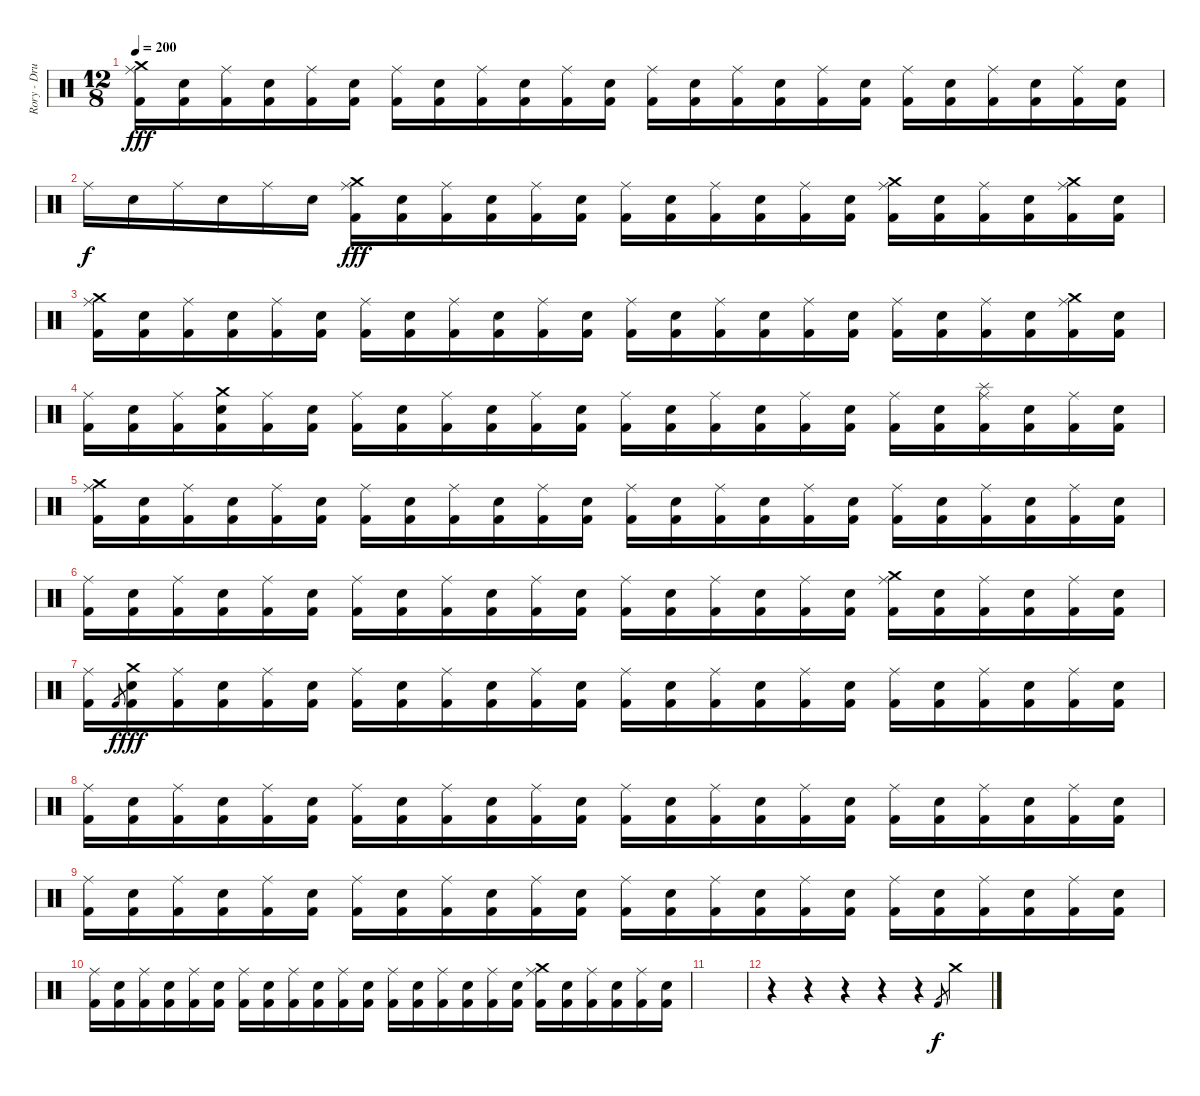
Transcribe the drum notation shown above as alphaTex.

\track ("Rory - Drums" "Rory - Dru") {instrument percussion}
\staff {score}
\articulation defaults
\ts (12 8)
\tempo 200
\clef neutral
\ks c
("Kick (hit) 2" "Crash medium (hit)" "Ride (middle)").16{dy fff} ("Kick (hit) 2" "Electric Snare (hit)").16 ("Kick (hit) 2" "Ride (middle)").16 ("Kick (hit) 2" "Electric Snare (hit)").16 ("Kick (hit) 2" "Ride (middle)").16 ("Kick (hit) 2" "Electric Snare (hit)").16 ("Kick (hit) 2" "Ride (middle)").16 ("Kick (hit) 2" "Electric Snare (hit)").16 ("Kick (hit) 2" "Ride (middle)").16 ("Kick (hit) 2" "Electric Snare (hit)").16 ("Kick (hit) 2" "Ride (middle)").16 ("Kick (hit) 2" "Electric Snare (hit)").16 ("Kick (hit) 2" "Ride (middle)").16 ("Kick (hit) 2" "Electric Snare (hit)").16 ("Kick (hit) 2" "Ride (middle)").16 ("Kick (hit) 2" "Electric Snare (hit)").16 ("Kick (hit) 2" "Ride (middle)").16 ("Kick (hit) 2" "Electric Snare (hit)").16 ("Kick (hit) 2" "Ride (middle)").16 ("Kick (hit) 2" "Electric Snare (hit)").16 ("Kick (hit) 2" "Ride (middle)").16 ("Kick (hit) 2" "Electric Snare (hit)").16 ("Kick (hit) 2" "Ride (middle)").16 ("Kick (hit) 2" "Electric Snare (hit)").16 |
"Ride (middle)".16{dy f} "Electric Snare (hit)".16 "Ride (middle)".16 "Electric Snare (hit)".16 "Ride (middle)".16 "Electric Snare (hit)".16 ("Kick (hit) 2" "Crash medium (hit)" "Ride (middle)").16{dy fff} ("Kick (hit) 2" "Electric Snare (hit)").16 ("Kick (hit) 2" "Ride (middle)").16 ("Kick (hit) 2" "Electric Snare (hit)").16 ("Kick (hit) 2" "Ride (middle)").16 ("Kick (hit) 2" "Electric Snare (hit)").16 ("Kick (hit) 2" "Ride (middle)").16 ("Kick (hit) 2" "Electric Snare (hit)").16 ("Kick (hit) 2" "Ride (middle)").16 ("Kick (hit) 2" "Electric Snare (hit)").16 ("Kick (hit) 2" "Ride (middle)").16 ("Kick (hit) 2" "Electric Snare (hit)").16 ("Kick (hit) 2" "Crash medium (hit)" "Ride (middle)").16 ("Kick (hit) 2" "Electric Snare (hit)").16 ("Kick (hit) 2" "Ride (middle)").16 ("Kick (hit) 2" "Electric Snare (hit)").16 ("Kick (hit) 2" "Crash medium (hit)" "Ride (middle)").16 ("Kick (hit) 2" "Electric Snare (hit)").16 |
("Kick (hit) 2" "Crash medium (hit)" "Ride (middle)").16 ("Kick (hit) 2" "Electric Snare (hit)").16 ("Kick (hit) 2" "Ride (middle)").16 ("Kick (hit) 2" "Electric Snare (hit)").16 ("Kick (hit) 2" "Ride (middle)").16 ("Kick (hit) 2" "Electric Snare (hit)").16 ("Kick (hit) 2" "Ride (middle)").16 ("Kick (hit) 2" "Electric Snare (hit)").16 ("Kick (hit) 2" "Ride (middle)").16 ("Kick (hit) 2" "Electric Snare (hit)").16 ("Kick (hit) 2" "Ride (middle)").16 ("Kick (hit) 2" "Electric Snare (hit)").16 ("Kick (hit) 2" "Ride (middle)").16 ("Kick (hit) 2" "Electric Snare (hit)").16 ("Kick (hit) 2" "Ride (middle)").16 ("Kick (hit) 2" "Electric Snare (hit)").16 ("Kick (hit) 2" "Ride (middle)").16 ("Kick (hit) 2" "Electric Snare (hit)").16 ("Kick (hit) 2" "Ride (middle)").16 ("Kick (hit) 2" "Electric Snare (hit)").16 ("Kick (hit) 2" "Ride (middle)").16 ("Kick (hit) 2" "Electric Snare (hit)").16 ("Kick (hit) 2" "Crash medium (hit)" "Ride (middle)").16 ("Kick (hit) 2" "Electric Snare (hit)").16 |
("Kick (hit) 2" "Ride (middle)").16 ("Kick (hit) 2" "Electric Snare (hit)").16 ("Kick (hit) 2" "Ride (middle)").16 ("Kick (hit) 2" "Crash medium (hit)" "Electric Snare (hit)").16 ("Kick (hit) 2" "Ride (middle)").16 ("Kick (hit) 2" "Electric Snare (hit)").16 ("Kick (hit) 2" "Ride (middle)").16 ("Kick (hit) 2" "Electric Snare (hit)").16 ("Kick (hit) 2" "Ride (middle)").16 ("Kick (hit) 2" "Electric Snare (hit)").16 ("Kick (hit) 2" "Ride (middle)").16 ("Kick (hit) 2" "Electric Snare (hit)").16 ("Kick (hit) 2" "Ride (middle)").16 ("Kick (hit) 2" "Electric Snare (hit)").16 ("Kick (hit) 2" "Ride (middle)").16 ("Kick (hit) 2" "Electric Snare (hit)").16 ("Kick (hit) 2" "Ride (middle)").16 ("Kick (hit) 2" "Electric Snare (hit)").16 ("Kick (hit) 2" "Ride (middle)").16 ("Kick (hit) 2" "Electric Snare (hit)").16 ("Kick (hit) 2" "Splash (hit)" "Ride (middle)").16 ("Kick (hit) 2" "Electric Snare (hit)").16 ("Kick (hit) 2" "Ride (middle)").16 ("Kick (hit) 2" "Electric Snare (hit)").16 |
("Kick (hit) 2" "Crash medium (hit)" "Ride (middle)").16 ("Kick (hit) 2" "Electric Snare (hit)").16 ("Kick (hit) 2" "Ride (middle)").16 ("Kick (hit) 2" "Electric Snare (hit)").16 ("Kick (hit) 2" "Ride (middle)").16 ("Kick (hit) 2" "Electric Snare (hit)").16 ("Kick (hit) 2" "Ride (middle)").16 ("Kick (hit) 2" "Electric Snare (hit)").16 ("Kick (hit) 2" "Ride (middle)").16 ("Kick (hit) 2" "Electric Snare (hit)").16 ("Kick (hit) 2" "Ride (middle)").16 ("Kick (hit) 2" "Electric Snare (hit)").16 ("Kick (hit) 2" "Ride (middle)").16 ("Kick (hit) 2" "Electric Snare (hit)").16 ("Kick (hit) 2" "Ride (middle)").16 ("Kick (hit) 2" "Electric Snare (hit)").16 ("Kick (hit) 2" "Ride (middle)").16 ("Kick (hit) 2" "Electric Snare (hit)").16 ("Kick (hit) 2" "Ride (middle)").16 ("Kick (hit) 2" "Electric Snare (hit)").16 ("Kick (hit) 2" "Ride (middle)").16 ("Kick (hit) 2" "Electric Snare (hit)").16 ("Kick (hit) 2" "Ride (middle)").16 ("Kick (hit) 2" "Electric Snare (hit)").16 |
("Kick (hit) 2" "Ride (middle)").16 ("Kick (hit) 2" "Electric Snare (hit)").16 ("Kick (hit) 2" "Ride (middle)").16 ("Kick (hit) 2" "Electric Snare (hit)").16 ("Kick (hit) 2" "Ride (middle)").16 ("Kick (hit) 2" "Electric Snare (hit)").16 ("Kick (hit) 2" "Ride (middle)").16 ("Kick (hit) 2" "Electric Snare (hit)").16 ("Kick (hit) 2" "Ride (middle)").16 ("Kick (hit) 2" "Electric Snare (hit)").16 ("Kick (hit) 2" "Ride (middle)").16 ("Kick (hit) 2" "Electric Snare (hit)").16 ("Kick (hit) 2" "Ride (middle)").16 ("Kick (hit) 2" "Electric Snare (hit)").16 ("Kick (hit) 2" "Ride (middle)").16 ("Kick (hit) 2" "Electric Snare (hit)").16 ("Kick (hit) 2" "Ride (middle)").16 ("Kick (hit) 2" "Electric Snare (hit)").16 ("Kick (hit) 2" "Crash medium (hit)" "Ride (middle)").16 ("Kick (hit) 2" "Electric Snare (hit)").16 ("Kick (hit) 2" "Ride (middle)").16 ("Kick (hit) 2" "Electric Snare (hit)").16 ("Kick (hit) 2" "Ride (middle)").16 ("Kick (hit) 2" "Electric Snare (hit)").16 |
("Kick (hit) 2" "Ride (middle)").16 "Kick (hit) 2".8{gr dy f} ("Kick (hit) 2" "Crash medium (hit)" "Electric Snare (hit)").16{dy fff} ("Kick (hit) 2" "Ride (middle)").16 ("Kick (hit) 2" "Electric Snare (hit)").16 ("Kick (hit) 2" "Ride (middle)").16 ("Kick (hit) 2" "Electric Snare (hit)").16 ("Kick (hit) 2" "Ride (middle)").16 ("Kick (hit) 2" "Electric Snare (hit)").16 ("Kick (hit) 2" "Ride (middle)").16 ("Kick (hit) 2" "Electric Snare (hit)").16 ("Kick (hit) 2" "Ride (middle)").16 ("Kick (hit) 2" "Electric Snare (hit)").16 ("Kick (hit) 2" "Ride (middle)").16 ("Kick (hit) 2" "Electric Snare (hit)").16 ("Kick (hit) 2" "Ride (middle)").16 ("Kick (hit) 2" "Electric Snare (hit)").16 ("Kick (hit) 2" "Ride (middle)").16 ("Kick (hit) 2" "Electric Snare (hit)").16 ("Kick (hit) 2" "Ride (middle)").16 ("Kick (hit) 2" "Electric Snare (hit)").16 ("Kick (hit) 2" "Ride (middle)").16 ("Kick (hit) 2" "Electric Snare (hit)").16 ("Kick (hit) 2" "Ride (middle)").16 ("Kick (hit) 2" "Electric Snare (hit)").16 |
("Kick (hit) 2" "Ride (middle)").16 ("Kick (hit) 2" "Electric Snare (hit)").16 ("Kick (hit) 2" "Ride (middle)").16 ("Kick (hit) 2" "Electric Snare (hit)").16 ("Kick (hit) 2" "Ride (middle)").16 ("Kick (hit) 2" "Electric Snare (hit)").16 ("Kick (hit) 2" "Ride (middle)").16 ("Kick (hit) 2" "Electric Snare (hit)").16 ("Kick (hit) 2" "Ride (middle)").16 ("Kick (hit) 2" "Electric Snare (hit)").16 ("Kick (hit) 2" "Ride (middle)").16 ("Kick (hit) 2" "Electric Snare (hit)").16 ("Kick (hit) 2" "Ride (middle)").16 ("Kick (hit) 2" "Electric Snare (hit)").16 ("Kick (hit) 2" "Ride (middle)").16 ("Kick (hit) 2" "Electric Snare (hit)").16 ("Kick (hit) 2" "Ride (middle)").16 ("Kick (hit) 2" "Electric Snare (hit)").16 ("Kick (hit) 2" "Ride (middle)").16 ("Kick (hit) 2" "Electric Snare (hit)").16 ("Kick (hit) 2" "Ride (middle)").16 ("Kick (hit) 2" "Electric Snare (hit)").16 ("Kick (hit) 2" "Ride (middle)").16 ("Kick (hit) 2" "Electric Snare (hit)").16 |
("Kick (hit) 2" "Ride (middle)").16 ("Kick (hit) 2" "Electric Snare (hit)").16 ("Kick (hit) 2" "Ride (middle)").16 ("Kick (hit) 2" "Electric Snare (hit)").16 ("Kick (hit) 2" "Ride (middle)").16 ("Kick (hit) 2" "Electric Snare (hit)").16 ("Kick (hit) 2" "Ride (middle)").16 ("Kick (hit) 2" "Electric Snare (hit)").16 ("Kick (hit) 2" "Ride (middle)").16 ("Kick (hit) 2" "Electric Snare (hit)").16 ("Kick (hit) 2" "Ride (middle)").16 ("Kick (hit) 2" "Electric Snare (hit)").16 ("Kick (hit) 2" "Ride (middle)").16 ("Kick (hit) 2" "Electric Snare (hit)").16 ("Kick (hit) 2" "Ride (middle)").16 ("Kick (hit) 2" "Electric Snare (hit)").16 ("Kick (hit) 2" "Ride (middle)").16 ("Kick (hit) 2" "Electric Snare (hit)").16 ("Kick (hit) 2" "Ride (middle)").16 ("Kick (hit) 2" "Electric Snare (hit)").16 ("Kick (hit) 2" "Ride (middle)").16 ("Kick (hit) 2" "Electric Snare (hit)").16 ("Kick (hit) 2" "Ride (middle)").16 ("Kick (hit) 2" "Electric Snare (hit)").16 |
("Kick (hit) 2" "Ride (middle)").16 ("Kick (hit) 2" "Electric Snare (hit)").16 ("Kick (hit) 2" "Ride (middle)").16 ("Kick (hit) 2" "Electric Snare (hit)").16 ("Kick (hit) 2" "Ride (middle)").16 ("Kick (hit) 2" "Electric Snare (hit)").16 ("Kick (hit) 2" "Ride (middle)").16 ("Kick (hit) 2" "Electric Snare (hit)").16 ("Kick (hit) 2" "Ride (middle)").16 ("Kick (hit) 2" "Electric Snare (hit)").16 ("Kick (hit) 2" "Ride (middle)").16 ("Kick (hit) 2" "Electric Snare (hit)").16 ("Kick (hit) 2" "Ride (middle)").16 ("Kick (hit) 2" "Electric Snare (hit)").16 ("Kick (hit) 2" "Ride (middle)").16 ("Kick (hit) 2" "Electric Snare (hit)").16 ("Kick (hit) 2" "Ride (middle)").16 ("Kick (hit) 2" "Electric Snare (hit)").16 ("Kick (hit) 2" "Crash medium (hit)" "Ride (middle)").16 ("Kick (hit) 2" "Electric Snare (hit)").16 ("Kick (hit) 2" "Ride (middle)").16 ("Kick (hit) 2" "Electric Snare (hit)").16 ("Kick (hit) 2" "Ride (middle)").16 ("Kick (hit) 2" "Electric Snare (hit)").16 |
|
r.4 r.4 r.4 r.4 r.4 "Kick (hit) 2".8{gr dy f} "Crash medium (hit)".4
